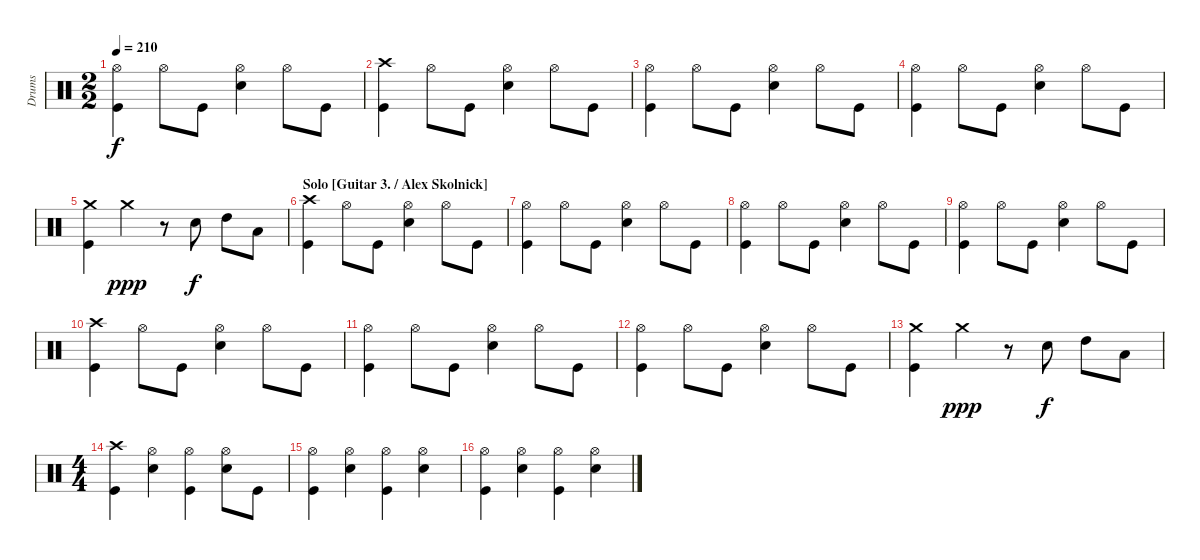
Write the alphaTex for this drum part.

\track ("Drums" "Drums") {instrument percussion}
\staff {score}
\articulation defaults
\ts (2 2)
\tempo 210
\clef neutral
\ks c
("Hi-Hat (open)" "Kick (hit)").4{dy f} "Hi-Hat (open)".8 "Kick (hit)".8 ("Hi-Hat (open)" "Electric Snare (hit)").4 "Hi-Hat (open)".8 "Kick (hit)".8 |
("Crash high (hit)" "Kick (hit)").4 "Hi-Hat (open)".8 "Kick (hit)".8 ("Hi-Hat (open)" "Electric Snare (hit)").4 "Hi-Hat (open)".8 "Kick (hit)".8 |
("Hi-Hat (open)" "Kick (hit)").4 "Hi-Hat (open)".8 "Kick (hit)".8 ("Hi-Hat (open)" "Electric Snare (hit)").4 "Hi-Hat (open)".8 "Kick (hit)".8 |
("Hi-Hat (open)" "Kick (hit)").4 "Hi-Hat (open)".8 "Kick (hit)".8 ("Hi-Hat (open)" "Electric Snare (hit)").4 "Hi-Hat (open)".8 "Kick (hit)".8 |
("Crash medium (hit)" "Kick (hit)").4 "Crash medium (hit)".4{dy ppp} r.8 "Electric Snare (hit)".8{dy f} "High Tom (hit)".8 "Low Tom (hit)".8 |
\section ("" "Solo [Guitar 3. / Alex Skolnick]")
("Crash high (hit)" "Kick (hit)").4 "Hi-Hat (open)".8 "Kick (hit)".8 ("Hi-Hat (open)" "Electric Snare (hit)").4 "Hi-Hat (open)".8 "Kick (hit)".8 |
("Hi-Hat (open)" "Kick (hit)").4 "Hi-Hat (open)".8 "Kick (hit)".8 ("Hi-Hat (open)" "Electric Snare (hit)").4 "Hi-Hat (open)".8 "Kick (hit)".8 |
("Hi-Hat (open)" "Kick (hit)").4 "Hi-Hat (open)".8 "Kick (hit)".8 ("Hi-Hat (open)" "Electric Snare (hit)").4 "Hi-Hat (open)".8 "Kick (hit)".8 |
("Hi-Hat (open)" "Kick (hit)").4 "Hi-Hat (open)".8 "Kick (hit)".8 ("Hi-Hat (open)" "Electric Snare (hit)").4 "Hi-Hat (open)".8 "Kick (hit)".8 |
("Crash high (hit)" "Kick (hit)").4 "Hi-Hat (open)".8 "Kick (hit)".8 ("Hi-Hat (open)" "Electric Snare (hit)").4 "Hi-Hat (open)".8 "Kick (hit)".8 |
("Hi-Hat (open)" "Kick (hit)").4 "Hi-Hat (open)".8 "Kick (hit)".8 ("Hi-Hat (open)" "Electric Snare (hit)").4 "Hi-Hat (open)".8 "Kick (hit)".8 |
("Hi-Hat (open)" "Kick (hit)").4 "Hi-Hat (open)".8 "Kick (hit)".8 ("Hi-Hat (open)" "Electric Snare (hit)").4 "Hi-Hat (open)".8 "Kick (hit)".8 |
("Crash medium (hit)" "Kick (hit)").4 "Crash medium (hit)".4{dy ppp} r.8 "Electric Snare (hit)".8{dy f} "High Tom (hit)".8 "Low Tom (hit)".8 |
\ts (4 4)
("Crash high (hit)" "Kick (hit)").4 ("Hi-Hat (open)" "Electric Snare (hit)").4 ("Hi-Hat (open)" "Kick (hit)").4 ("Hi-Hat (open)" "Electric Snare (hit)").8 "Kick (hit)".8 |
("Hi-Hat (open)" "Kick (hit)").4 ("Hi-Hat (open)" "Electric Snare (hit)").4 ("Hi-Hat (open)" "Kick (hit)").4 ("Hi-Hat (open)" "Electric Snare (hit)").4 |
("Hi-Hat (open)" "Kick (hit)").4 ("Hi-Hat (open)" "Electric Snare (hit)").4 ("Hi-Hat (open)" "Kick (hit)").4 ("Hi-Hat (open)" "Electric Snare (hit)").4
